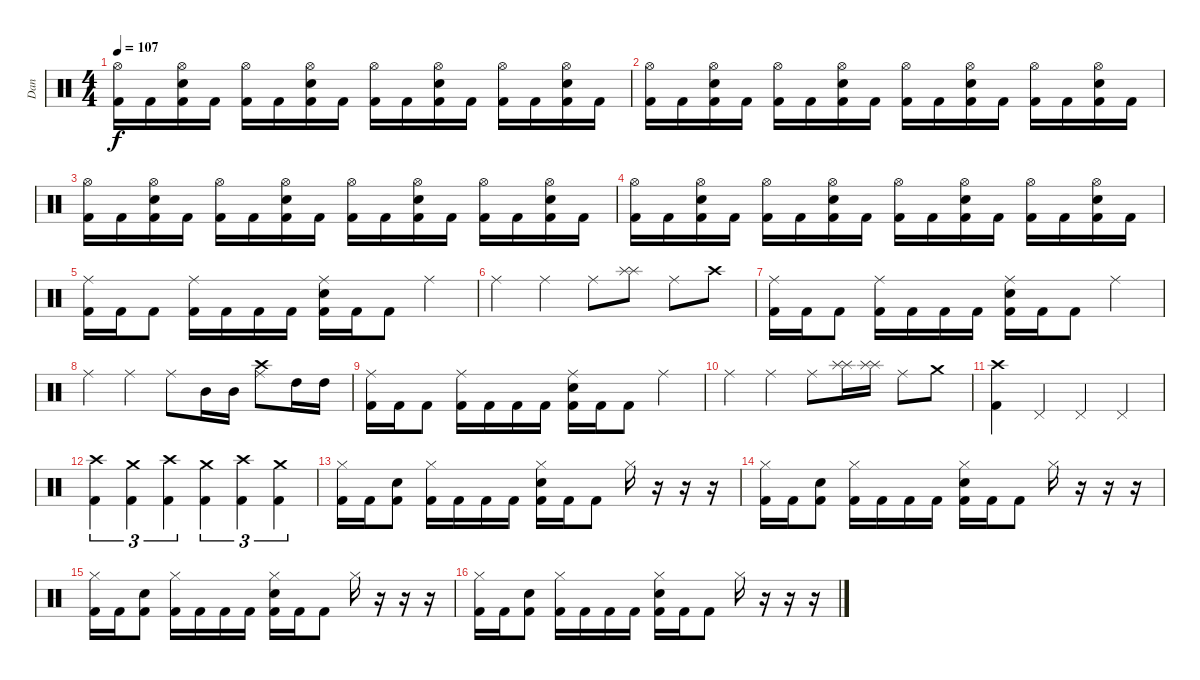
\track ("Dan" "Dan") {instrument percussion}
\staff {score}
\articulation defaults
\ts (4 4)
\tempo 107
\clef neutral
\ks c
("Hi-Hat (open)" "Kick (hit) 2").16{dy f} "Kick (hit) 2".16 ("Electric Snare (hit)" "Hi-Hat (open)" "Kick (hit) 2").16 "Kick (hit) 2".16 ("Hi-Hat (open)" "Kick (hit) 2").16 "Kick (hit) 2".16 ("Electric Snare (hit)" "Hi-Hat (open)" "Kick (hit) 2").16 "Kick (hit) 2".16 ("Hi-Hat (open)" "Kick (hit) 2").16 "Kick (hit) 2".16 ("Electric Snare (hit)" "Hi-Hat (open)" "Kick (hit) 2").16 "Kick (hit) 2".16 ("Hi-Hat (open)" "Kick (hit) 2").16 "Kick (hit) 2".16 ("Electric Snare (hit)" "Hi-Hat (open)" "Kick (hit) 2").16 "Kick (hit) 2".16 |
("Hi-Hat (open)" "Kick (hit) 2").16 "Kick (hit) 2".16 ("Electric Snare (hit)" "Hi-Hat (open)" "Kick (hit) 2").16 "Kick (hit) 2".16 ("Hi-Hat (open)" "Kick (hit) 2").16 "Kick (hit) 2".16 ("Electric Snare (hit)" "Hi-Hat (open)" "Kick (hit) 2").16 "Kick (hit) 2".16 ("Hi-Hat (open)" "Kick (hit) 2").16 "Kick (hit) 2".16 ("Electric Snare (hit)" "Hi-Hat (open)" "Kick (hit) 2").16 "Kick (hit) 2".16 ("Hi-Hat (open)" "Kick (hit) 2").16 "Kick (hit) 2".16 ("Electric Snare (hit)" "Hi-Hat (open)" "Kick (hit) 2").16 "Kick (hit) 2".16 |
("Hi-Hat (open)" "Kick (hit) 2").16 "Kick (hit) 2".16 ("Electric Snare (hit)" "Hi-Hat (open)" "Kick (hit) 2").16 "Kick (hit) 2".16 ("Hi-Hat (open)" "Kick (hit) 2").16 "Kick (hit) 2".16 ("Electric Snare (hit)" "Hi-Hat (open)" "Kick (hit) 2").16 "Kick (hit) 2".16 ("Hi-Hat (open)" "Kick (hit) 2").16 "Kick (hit) 2".16 ("Electric Snare (hit)" "Hi-Hat (open)" "Kick (hit) 2").16 "Kick (hit) 2".16 ("Hi-Hat (open)" "Kick (hit) 2").16 "Kick (hit) 2".16 ("Electric Snare (hit)" "Hi-Hat (open)" "Kick (hit) 2").16 "Kick (hit) 2".16 |
("Hi-Hat (open)" "Kick (hit) 2").16 "Kick (hit) 2".16 ("Electric Snare (hit)" "Hi-Hat (open)" "Kick (hit) 2").16 "Kick (hit) 2".16 ("Hi-Hat (open)" "Kick (hit) 2").16 "Kick (hit) 2".16 ("Electric Snare (hit)" "Hi-Hat (open)" "Kick (hit) 2").16 "Kick (hit) 2".16 ("Hi-Hat (open)" "Kick (hit) 2").16 "Kick (hit) 2".16 ("Electric Snare (hit)" "Hi-Hat (open)" "Kick (hit) 2").16 "Kick (hit) 2".16 ("Hi-Hat (open)" "Kick (hit) 2").16 "Kick (hit) 2".16 ("Electric Snare (hit)" "Hi-Hat (open)" "Kick (hit) 2").16 "Kick (hit) 2".16 |
("Kick (hit) 2" "Ride (middle)").16 "Kick (hit) 2".16 "Kick (hit) 2".8 ("Kick (hit) 2" "Ride (middle)").16 "Kick (hit) 2".16 "Kick (hit) 2".16 "Kick (hit) 2".16 ("Electric Snare (hit)" "Kick (hit) 2" "Ride (middle)").16 "Kick (hit) 2".16 "Kick (hit) 2".8 "Ride (middle)".4 |
"Ride (middle)".4 "Ride (middle)".4 "Ride (middle)".8 ("Splash (hit)" "Splash (hit)").8 "Ride (middle)".8 "Crash high (hit)".8 |
("Kick (hit) 2" "Ride (middle)").16 "Kick (hit) 2".16 "Kick (hit) 2".8 ("Kick (hit) 2" "Ride (middle)").16 "Kick (hit) 2".16 "Kick (hit) 2".16 "Kick (hit) 2".16 ("Electric Snare (hit)" "Kick (hit) 2" "Ride (middle)").16 "Kick (hit) 2".16 "Kick (hit) 2".8 "Ride (middle)".4 |
"Ride (middle)".4 "Ride (middle)".4 "Ride (middle)".8 "Mid Tom (hit)".16 "Mid Tom (hit)".16 ("Crash high (hit)" "Ride (middle)").8 "High Tom (hit)".16 "High Tom (hit)".16 |
("Kick (hit) 2" "Ride (middle)").16 "Kick (hit) 2".16 "Kick (hit) 2".8 ("Kick (hit) 2" "Ride (middle)").16 "Kick (hit) 2".16 "Kick (hit) 2".16 "Kick (hit) 2".16 ("Electric Snare (hit)" "Kick (hit) 2" "Ride (middle)").16 "Kick (hit) 2".16 "Kick (hit) 2".8 "Ride (middle)".4 |
"Ride (middle)".4 "Ride (middle)".4 "Ride (middle)".8 ("Splash (hit)" "Splash (hit)").16 ("Splash (hit)" "Splash (hit)").16 "Ride (middle)".8 "Crash medium (hit)".8 |
("Crash high (hit)" "Kick (hit) 2").4 "Pedal Hi-Hat (hit)".4 "Pedal Hi-Hat (hit)".4 "Pedal Hi-Hat (hit)".4 |
("Crash high (hit)" "Kick (hit) 2").4{tu (3 2)} ("Crash medium (hit)" "Kick (hit) 2").4{tu (3 2)} ("Crash high (hit)" "Kick (hit) 2").4{tu (3 2)} ("Crash medium (hit)" "Kick (hit) 2").4{tu (3 2)} ("Crash high (hit)" "Kick (hit) 2").4{tu (3 2)} ("Crash medium (hit)" "Kick (hit) 2").4{tu (3 2)} |
("Hi-Hat (closed)" "Kick (hit) 2").16 "Kick (hit) 2".16 ("Kick (hit) 2" "Electric Snare (hit)").8 ("Hi-Hat (closed)" "Kick (hit) 2").16 "Kick (hit) 2".16 "Kick (hit) 2".16 "Kick (hit) 2".16 ("Hi-Hat (closed)" "Kick (hit) 2" "Electric Snare (hit)").16 "Kick (hit) 2".16 "Kick (hit) 2".8 "Hi-Hat (closed)".16 r.16 r.16 r.16 |
("Hi-Hat (closed)" "Kick (hit) 2").16 "Kick (hit) 2".16 ("Kick (hit) 2" "Electric Snare (hit)").8 ("Hi-Hat (closed)" "Kick (hit) 2").16 "Kick (hit) 2".16 "Kick (hit) 2".16 "Kick (hit) 2".16 ("Hi-Hat (closed)" "Kick (hit) 2" "Electric Snare (hit)").16 "Kick (hit) 2".16 "Kick (hit) 2".8 "Hi-Hat (closed)".16 r.16 r.16 r.16 |
("Hi-Hat (closed)" "Kick (hit) 2").16 "Kick (hit) 2".16 ("Kick (hit) 2" "Electric Snare (hit)").8 ("Hi-Hat (closed)" "Kick (hit) 2").16 "Kick (hit) 2".16 "Kick (hit) 2".16 "Kick (hit) 2".16 ("Hi-Hat (closed)" "Kick (hit) 2" "Electric Snare (hit)").16 "Kick (hit) 2".16 "Kick (hit) 2".8 "Hi-Hat (closed)".16 r.16 r.16 r.16 |
("Hi-Hat (closed)" "Kick (hit) 2").16 "Kick (hit) 2".16 ("Kick (hit) 2" "Electric Snare (hit)").8 ("Hi-Hat (closed)" "Kick (hit) 2").16 "Kick (hit) 2".16 "Kick (hit) 2".16 "Kick (hit) 2".16 ("Hi-Hat (closed)" "Kick (hit) 2" "Electric Snare (hit)").16 "Kick (hit) 2".16 "Kick (hit) 2".8 "Hi-Hat (closed)".16 r.16 r.16 r.16
